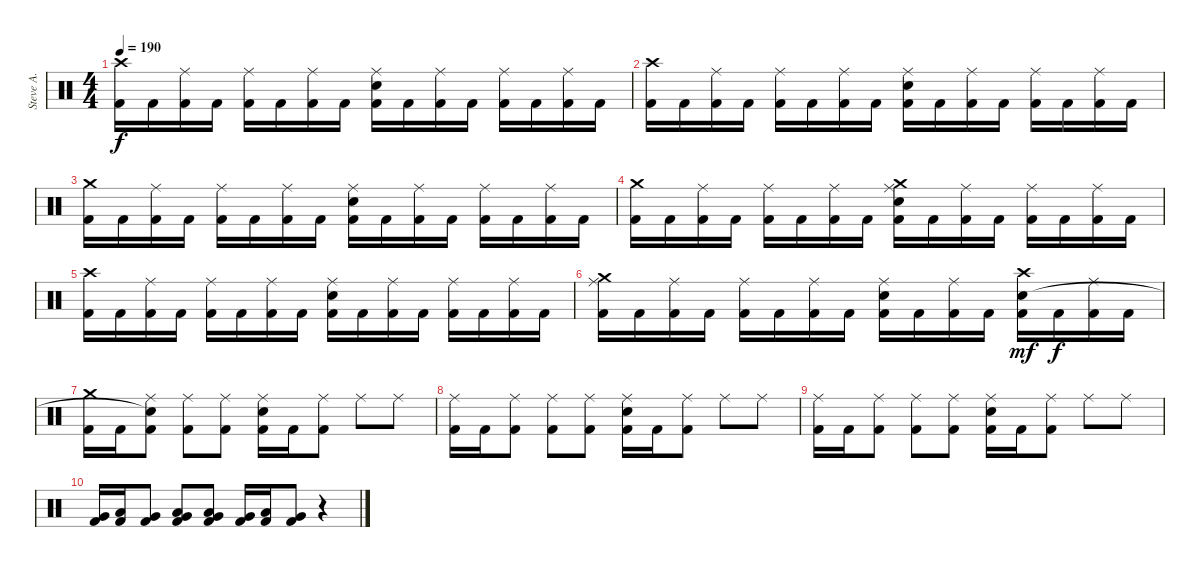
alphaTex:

\track ("Steve A." "Steve A.") {instrument percussion}
\staff {score}
\articulation defaults
\ts (4 4)
\tempo 190
\clef neutral
\ks c
("Kick (hit) 2" "Crash high (hit)").16{dy f} "Kick (hit) 2".16 ("Kick (hit) 2" "Ride (middle)").16 "Kick (hit) 2".16 ("Kick (hit) 2" "Ride (middle)").16 "Kick (hit) 2".16 ("Kick (hit) 2" "Ride (middle)").16 "Kick (hit) 2".16 ("Kick (hit) 2" "Ride (middle)" "Electric Snare (hit)").16 "Kick (hit) 2".16 ("Kick (hit) 2" "Ride (middle)").16 "Kick (hit) 2".16 ("Kick (hit) 2" "Ride (middle)").16 "Kick (hit) 2".16 ("Kick (hit) 2" "Ride (middle)").16 "Kick (hit) 2".16 |
("Kick (hit) 2" "Crash high (hit)").16 "Kick (hit) 2".16 ("Kick (hit) 2" "Ride (middle)").16 "Kick (hit) 2".16 ("Kick (hit) 2" "Ride (middle)").16 "Kick (hit) 2".16 ("Kick (hit) 2" "Ride (middle)").16 "Kick (hit) 2".16 ("Kick (hit) 2" "Ride (middle)" "Electric Snare (hit)").16 "Kick (hit) 2".16 ("Kick (hit) 2" "Ride (middle)").16 "Kick (hit) 2".16 ("Kick (hit) 2" "Ride (middle)").16 "Kick (hit) 2".16 ("Kick (hit) 2" "Ride (middle)").16 "Kick (hit) 2".16 |
("Kick (hit) 2" "Crash medium (hit)").16 "Kick (hit) 2".16 ("Kick (hit) 2" "Ride (middle)").16 "Kick (hit) 2".16 ("Kick (hit) 2" "Ride (middle)").16 "Kick (hit) 2".16 ("Kick (hit) 2" "Ride (middle)").16 "Kick (hit) 2".16 ("Kick (hit) 2" "Ride (middle)" "Electric Snare (hit)").16 "Kick (hit) 2".16 ("Kick (hit) 2" "Ride (middle)").16 "Kick (hit) 2".16 ("Kick (hit) 2" "Ride (middle)").16 "Kick (hit) 2".16 ("Kick (hit) 2" "Ride (middle)").16 "Kick (hit) 2".16 |
("Kick (hit) 2" "Crash medium (hit)").16 "Kick (hit) 2".16 ("Kick (hit) 2" "Ride (middle)").16 "Kick (hit) 2".16 ("Kick (hit) 2" "Ride (middle)").16 "Kick (hit) 2".16 ("Kick (hit) 2" "Ride (middle)").16 "Kick (hit) 2".16 ("Kick (hit) 2" "Ride (middle)" "Electric Snare (hit)" "Crash medium (hit)").16 "Kick (hit) 2".16 ("Kick (hit) 2" "Ride (middle)").16 "Kick (hit) 2".16 ("Kick (hit) 2" "Ride (middle)").16 "Kick (hit) 2".16 ("Kick (hit) 2" "Ride (middle)").16 "Kick (hit) 2".16 |
("Kick (hit) 2" "Crash high (hit)").16 "Kick (hit) 2".16 ("Kick (hit) 2" "Ride (middle)").16 "Kick (hit) 2".16 ("Kick (hit) 2" "Ride (middle)").16 "Kick (hit) 2".16 ("Kick (hit) 2" "Ride (middle)").16 "Kick (hit) 2".16 ("Kick (hit) 2" "Ride (middle)" "Electric Snare (hit)").16 "Kick (hit) 2".16 ("Kick (hit) 2" "Ride (middle)").16 "Kick (hit) 2".16 ("Kick (hit) 2" "Ride (middle)").16 "Kick (hit) 2".16 ("Kick (hit) 2" "Ride (middle)").16 "Kick (hit) 2".16 |
("Kick (hit) 2" "Ride (middle)" "Crash medium (hit)").16 "Kick (hit) 2".16 ("Kick (hit) 2" "Ride (middle)").16 "Kick (hit) 2".16 ("Kick (hit) 2" "Ride (middle)").16 "Kick (hit) 2".16 ("Kick (hit) 2" "Ride (middle)").16 "Kick (hit) 2".16 ("Kick (hit) 2" "Ride (middle)" "Electric Snare (hit)").16 "Kick (hit) 2".16 ("Kick (hit) 2" "Ride (middle)").16 "Kick (hit) 2".16 ("Kick (hit) 2" "Crash high (hit)" "Electric Snare (hit)").16{dy mf} "Kick (hit) 2".16{dy f} ("Kick (hit) 2" "Ride (middle)").16 "Kick (hit) 2".16 |
("Kick (hit) 2" "Crash medium (hit)").16 "Kick (hit) 2".16 ("Kick (hit) 2" "Ride (middle)" "Snare (hit)"{t}).8 ("Kick (hit) 2" "Ride (middle)").8 ("Kick (hit) 2" "Ride (middle)").8 ("Kick (hit) 2" "Ride (middle)" "Electric Snare (hit)").16 "Kick (hit) 2".16 ("Kick (hit) 2" "Ride (middle)").8 "Ride (middle)".8 "Ride (middle)".8 |
("Kick (hit) 2" "Ride (middle)").16 "Kick (hit) 2".16 ("Kick (hit) 2" "Ride (middle)").8 ("Kick (hit) 2" "Ride (middle)").8 ("Kick (hit) 2" "Ride (middle)").8 ("Kick (hit) 2" "Ride (middle)" "Electric Snare (hit)").16 "Kick (hit) 2".16 ("Kick (hit) 2" "Ride (middle)").8 "Ride (middle)".8 "Ride (middle)".8 |
("Kick (hit) 2" "Ride (middle)").16 "Kick (hit) 2".16 ("Kick (hit) 2" "Ride (middle)").8 ("Kick (hit) 2" "Ride (middle)").8 ("Kick (hit) 2" "Ride (middle)").8 ("Kick (hit) 2" "Ride (middle)" "Electric Snare (hit)").16 "Kick (hit) 2".16 ("Kick (hit) 2" "Ride (middle)").8 "Ride (middle)".8 "Ride (middle)".8 |
("Kick (hit) 2" "Very Low Tom (hit)").16 ("Kick (hit) 2" "Low Floor Tom (hit)").16 ("Kick (hit) 2" "Very Low Tom (hit)").8 ("Kick (hit) 2" "Very Low Tom (hit)" "Low Floor Tom (hit)").8 ("Kick (hit) 2" "Very Low Tom (hit)" "Low Floor Tom (hit)").8 ("Kick (hit) 2" "Very Low Tom (hit)").16 ("Kick (hit) 2" "Low Floor Tom (hit)").16 ("Kick (hit) 2" "Very Low Tom (hit)").8 r.4
